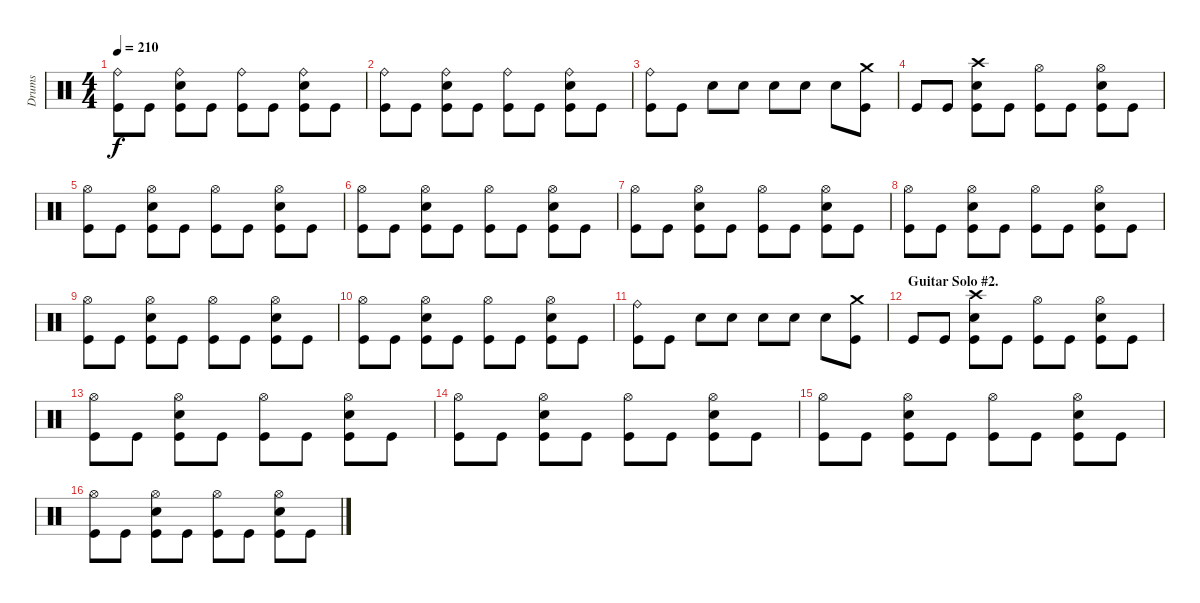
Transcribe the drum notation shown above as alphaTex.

\track ("Drums" "Drums") {instrument percussion}
\staff {score}
\articulation defaults
\ts (4 4)
\tempo 210
\clef neutral
\ks c
("Ride (bell)" "Kick (hit)").8{dy f} "Kick (hit)".8 ("Ride (bell)" "Electric Snare (hit)" "Kick (hit)").8 "Kick (hit)".8 ("Ride (bell)" "Kick (hit)").8 "Kick (hit)".8 ("Ride (bell)" "Electric Snare (hit)" "Kick (hit)").8 "Kick (hit)".8 |
("Ride (bell)" "Kick (hit)").8 "Kick (hit)".8 ("Ride (bell)" "Electric Snare (hit)" "Kick (hit)").8 "Kick (hit)".8 ("Ride (bell)" "Kick (hit)").8 "Kick (hit)".8 ("Ride (bell)" "Electric Snare (hit)" "Kick (hit)").8 "Kick (hit)".8 |
("Ride (bell)" "Kick (hit)").8 "Kick (hit)".8 "Electric Snare (hit)".8 "Electric Snare (hit)".8 "Electric Snare (hit)".8 "Electric Snare (hit)".8 "Electric Snare (hit)".8 ("Crash medium (hit)" "Kick (hit)").8 |
"Kick (hit)".8 "Kick (hit)".8 ("Crash high (hit)" "Electric Snare (hit)" "Kick (hit)").8 "Kick (hit)".8 ("Hi-Hat (open)" "Kick (hit)").8 "Kick (hit)".8 ("Hi-Hat (open)" "Electric Snare (hit)" "Kick (hit)").8 "Kick (hit)".8 |
("Hi-Hat (open)" "Kick (hit)").8 "Kick (hit)".8 ("Hi-Hat (open)" "Electric Snare (hit)" "Kick (hit)").8 "Kick (hit)".8 ("Hi-Hat (open)" "Kick (hit)").8 "Kick (hit)".8 ("Hi-Hat (open)" "Electric Snare (hit)" "Kick (hit)").8 "Kick (hit)".8 |
("Hi-Hat (open)" "Kick (hit)").8 "Kick (hit)".8 ("Hi-Hat (open)" "Electric Snare (hit)" "Kick (hit)").8 "Kick (hit)".8 ("Hi-Hat (open)" "Kick (hit)").8 "Kick (hit)".8 ("Hi-Hat (open)" "Electric Snare (hit)" "Kick (hit)").8 "Kick (hit)".8 |
("Hi-Hat (open)" "Kick (hit)").8 "Kick (hit)".8 ("Hi-Hat (open)" "Electric Snare (hit)" "Kick (hit)").8 "Kick (hit)".8 ("Hi-Hat (open)" "Kick (hit)").8 "Kick (hit)".8 ("Hi-Hat (open)" "Electric Snare (hit)" "Kick (hit)").8 "Kick (hit)".8 |
("Hi-Hat (open)" "Kick (hit)").8 "Kick (hit)".8 ("Hi-Hat (open)" "Electric Snare (hit)" "Kick (hit)").8 "Kick (hit)".8 ("Hi-Hat (open)" "Kick (hit)").8 "Kick (hit)".8 ("Hi-Hat (open)" "Electric Snare (hit)" "Kick (hit)").8 "Kick (hit)".8 |
("Hi-Hat (open)" "Kick (hit)").8 "Kick (hit)".8 ("Hi-Hat (open)" "Electric Snare (hit)" "Kick (hit)").8 "Kick (hit)".8 ("Hi-Hat (open)" "Kick (hit)").8 "Kick (hit)".8 ("Hi-Hat (open)" "Electric Snare (hit)" "Kick (hit)").8 "Kick (hit)".8 |
("Hi-Hat (open)" "Kick (hit)").8 "Kick (hit)".8 ("Hi-Hat (open)" "Electric Snare (hit)" "Kick (hit)").8 "Kick (hit)".8 ("Hi-Hat (open)" "Kick (hit)").8 "Kick (hit)".8 ("Hi-Hat (open)" "Electric Snare (hit)" "Kick (hit)").8 "Kick (hit)".8 |
("Ride (bell)" "Kick (hit)").8 "Kick (hit)".8 "Electric Snare (hit)".8 "Electric Snare (hit)".8 "Electric Snare (hit)".8 "Electric Snare (hit)".8 "Electric Snare (hit)".8 ("Crash medium (hit)" "Kick (hit)").8 |
\section ("" "Guitar Solo #2.")
"Kick (hit)".8 "Kick (hit)".8 ("Crash high (hit)" "Electric Snare (hit)" "Kick (hit)").8 "Kick (hit)".8 ("Hi-Hat (open)" "Kick (hit)").8 "Kick (hit)".8 ("Hi-Hat (open)" "Electric Snare (hit)" "Kick (hit)").8 "Kick (hit)".8 |
("Hi-Hat (open)" "Kick (hit)").8 "Kick (hit)".8 ("Hi-Hat (open)" "Electric Snare (hit)" "Kick (hit)").8 "Kick (hit)".8 ("Hi-Hat (open)" "Kick (hit)").8 "Kick (hit)".8 ("Hi-Hat (open)" "Electric Snare (hit)" "Kick (hit)").8 "Kick (hit)".8 |
("Hi-Hat (open)" "Kick (hit)").8 "Kick (hit)".8 ("Hi-Hat (open)" "Electric Snare (hit)" "Kick (hit)").8 "Kick (hit)".8 ("Hi-Hat (open)" "Kick (hit)").8 "Kick (hit)".8 ("Hi-Hat (open)" "Electric Snare (hit)" "Kick (hit)").8 "Kick (hit)".8 |
("Hi-Hat (open)" "Kick (hit)").8 "Kick (hit)".8 ("Hi-Hat (open)" "Electric Snare (hit)" "Kick (hit)").8 "Kick (hit)".8 ("Hi-Hat (open)" "Kick (hit)").8 "Kick (hit)".8 ("Hi-Hat (open)" "Electric Snare (hit)" "Kick (hit)").8 "Kick (hit)".8 |
("Hi-Hat (open)" "Kick (hit)").8 "Kick (hit)".8 ("Hi-Hat (open)" "Electric Snare (hit)" "Kick (hit)").8 "Kick (hit)".8 ("Hi-Hat (open)" "Kick (hit)").8 "Kick (hit)".8 ("Hi-Hat (open)" "Electric Snare (hit)" "Kick (hit)").8 "Kick (hit)".8
